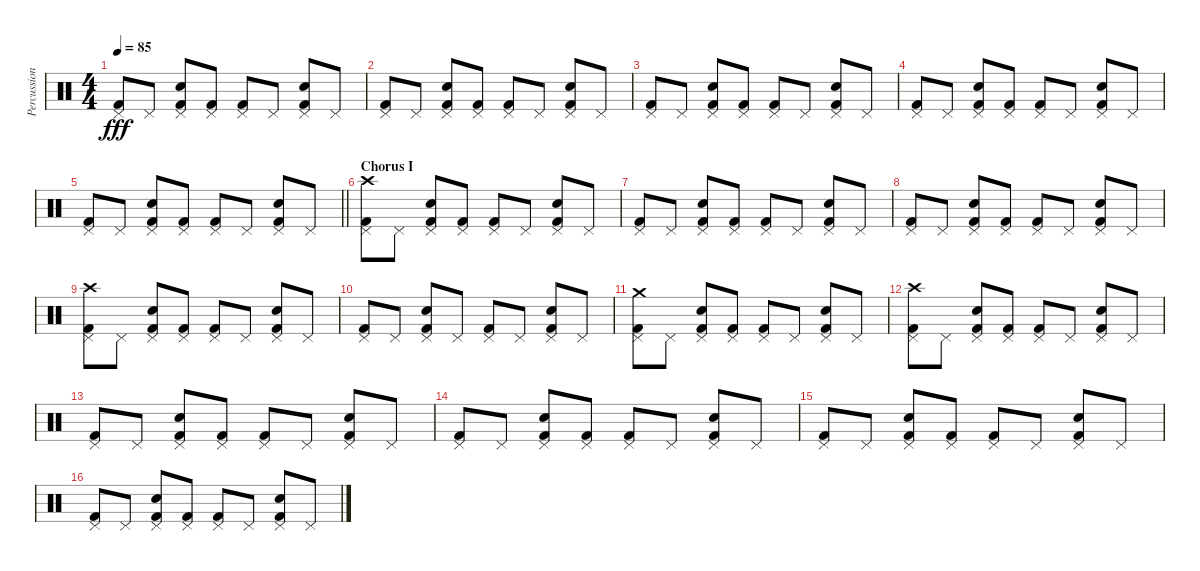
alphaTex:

\track ("Percussion" "Percussion") {instrument percussion}
\staff {score}
\articulation defaults
\ts (4 4)
\tempo 85
\clef neutral
\ks c
("Pedal Hi-Hat (hit)" "Kick (hit) 2").8{dy fff} "Pedal Hi-Hat (hit)".8 ("Pedal Hi-Hat (hit)" "Snare (hit) 2" "Kick (hit) 2").8 ("Pedal Hi-Hat (hit)" "Kick (hit) 2").8 ("Pedal Hi-Hat (hit)" "Kick (hit) 2").8 "Pedal Hi-Hat (hit)".8 ("Pedal Hi-Hat (hit)" "Snare (hit) 2" "Kick (hit) 2").8 "Pedal Hi-Hat (hit)".8 |
("Pedal Hi-Hat (hit)" "Kick (hit) 2").8 "Pedal Hi-Hat (hit)".8 ("Pedal Hi-Hat (hit)" "Snare (hit) 2" "Kick (hit) 2").8 ("Pedal Hi-Hat (hit)" "Kick (hit) 2").8 ("Pedal Hi-Hat (hit)" "Kick (hit) 2").8 "Pedal Hi-Hat (hit)".8 ("Pedal Hi-Hat (hit)" "Snare (hit) 2" "Kick (hit) 2").8 "Pedal Hi-Hat (hit)".8 |
("Pedal Hi-Hat (hit)" "Kick (hit) 2").8 "Pedal Hi-Hat (hit)".8 ("Pedal Hi-Hat (hit)" "Snare (hit) 2" "Kick (hit) 2").8 ("Pedal Hi-Hat (hit)" "Kick (hit) 2").8 ("Pedal Hi-Hat (hit)" "Kick (hit) 2").8 "Pedal Hi-Hat (hit)".8 ("Pedal Hi-Hat (hit)" "Snare (hit) 2" "Kick (hit) 2").8 "Pedal Hi-Hat (hit)".8 |
("Pedal Hi-Hat (hit)" "Kick (hit) 2").8 "Pedal Hi-Hat (hit)".8 ("Pedal Hi-Hat (hit)" "Snare (hit) 2" "Kick (hit) 2").8 ("Pedal Hi-Hat (hit)" "Kick (hit) 2").8 ("Pedal Hi-Hat (hit)" "Kick (hit) 2").8 "Pedal Hi-Hat (hit)".8 ("Pedal Hi-Hat (hit)" "Snare (hit) 2" "Kick (hit) 2").8 "Pedal Hi-Hat (hit)".8 |
\barLineRight lightlight
("Pedal Hi-Hat (hit)" "Kick (hit) 2").8 "Pedal Hi-Hat (hit)".8 ("Pedal Hi-Hat (hit)" "Snare (hit) 2" "Kick (hit) 2").8 ("Pedal Hi-Hat (hit)" "Kick (hit) 2").8 ("Pedal Hi-Hat (hit)" "Kick (hit) 2").8 "Pedal Hi-Hat (hit)".8 ("Pedal Hi-Hat (hit)" "Snare (hit) 2" "Kick (hit) 2").8 "Pedal Hi-Hat (hit)".8 |
\section ("" "Chorus I")
("Crash high (hit)" "Pedal Hi-Hat (hit)" "Kick (hit) 2").8 "Pedal Hi-Hat (hit)".8 ("Pedal Hi-Hat (hit)" "Snare (hit) 2" "Kick (hit) 2").8 ("Pedal Hi-Hat (hit)" "Kick (hit) 2").8 ("Pedal Hi-Hat (hit)" "Kick (hit) 2").8 "Pedal Hi-Hat (hit)".8 ("Pedal Hi-Hat (hit)" "Snare (hit) 2" "Kick (hit) 2").8 "Pedal Hi-Hat (hit)".8 |
("Pedal Hi-Hat (hit)" "Kick (hit) 2").8 "Pedal Hi-Hat (hit)".8 ("Pedal Hi-Hat (hit)" "Snare (hit) 2" "Kick (hit) 2").8 ("Pedal Hi-Hat (hit)" "Kick (hit) 2").8 ("Pedal Hi-Hat (hit)" "Kick (hit) 2").8 "Pedal Hi-Hat (hit)".8 ("Pedal Hi-Hat (hit)" "Snare (hit) 2" "Kick (hit) 2").8 "Pedal Hi-Hat (hit)".8 |
("Pedal Hi-Hat (hit)" "Kick (hit) 2").8 "Pedal Hi-Hat (hit)".8 ("Pedal Hi-Hat (hit)" "Snare (hit) 2" "Kick (hit) 2").8 ("Pedal Hi-Hat (hit)" "Kick (hit) 2").8 ("Pedal Hi-Hat (hit)" "Kick (hit) 2").8 "Pedal Hi-Hat (hit)".8 ("Pedal Hi-Hat (hit)" "Snare (hit) 2" "Kick (hit) 2").8 "Pedal Hi-Hat (hit)".8 |
("Crash high (hit)" "Pedal Hi-Hat (hit)" "Kick (hit) 2").8 "Pedal Hi-Hat (hit)".8 ("Pedal Hi-Hat (hit)" "Snare (hit) 2" "Kick (hit) 2").8 ("Pedal Hi-Hat (hit)" "Kick (hit) 2").8 ("Pedal Hi-Hat (hit)" "Kick (hit) 2").8 "Pedal Hi-Hat (hit)".8 ("Pedal Hi-Hat (hit)" "Snare (hit) 2" "Kick (hit) 2").8 "Pedal Hi-Hat (hit)".8 |
("Pedal Hi-Hat (hit)" "Kick (hit) 2").8 "Pedal Hi-Hat (hit)".8 ("Pedal Hi-Hat (hit)" "Snare (hit) 2" "Kick (hit) 2").8 "Pedal Hi-Hat (hit)".8 ("Pedal Hi-Hat (hit)" "Kick (hit) 2").8 "Pedal Hi-Hat (hit)".8 ("Pedal Hi-Hat (hit)" "Snare (hit) 2" "Kick (hit) 2").8 "Pedal Hi-Hat (hit)".8 |
("Crash medium (hit)" "Pedal Hi-Hat (hit)" "Kick (hit) 2").8 "Pedal Hi-Hat (hit)".8 ("Pedal Hi-Hat (hit)" "Snare (hit) 2" "Kick (hit) 2").8 ("Pedal Hi-Hat (hit)" "Kick (hit) 2").8 ("Pedal Hi-Hat (hit)" "Kick (hit) 2").8 "Pedal Hi-Hat (hit)".8 ("Pedal Hi-Hat (hit)" "Snare (hit) 2" "Kick (hit) 2").8 "Pedal Hi-Hat (hit)".8 |
("Crash high (hit)" "Pedal Hi-Hat (hit)" "Kick (hit) 2").8 "Pedal Hi-Hat (hit)".8 ("Pedal Hi-Hat (hit)" "Snare (hit) 2" "Kick (hit) 2").8 ("Pedal Hi-Hat (hit)" "Kick (hit) 2").8 ("Pedal Hi-Hat (hit)" "Kick (hit) 2").8 "Pedal Hi-Hat (hit)".8 ("Pedal Hi-Hat (hit)" "Snare (hit) 2" "Kick (hit) 2").8 "Pedal Hi-Hat (hit)".8 |
("Pedal Hi-Hat (hit)" "Kick (hit) 2").8 "Pedal Hi-Hat (hit)".8 ("Pedal Hi-Hat (hit)" "Snare (hit) 2" "Kick (hit) 2").8 ("Pedal Hi-Hat (hit)" "Kick (hit) 2").8 ("Pedal Hi-Hat (hit)" "Kick (hit) 2").8 "Pedal Hi-Hat (hit)".8 ("Pedal Hi-Hat (hit)" "Snare (hit) 2" "Kick (hit) 2").8 "Pedal Hi-Hat (hit)".8 |
("Pedal Hi-Hat (hit)" "Kick (hit) 2").8 "Pedal Hi-Hat (hit)".8 ("Pedal Hi-Hat (hit)" "Snare (hit) 2" "Kick (hit) 2").8 ("Pedal Hi-Hat (hit)" "Kick (hit) 2").8 ("Pedal Hi-Hat (hit)" "Kick (hit) 2").8 "Pedal Hi-Hat (hit)".8 ("Pedal Hi-Hat (hit)" "Snare (hit) 2" "Kick (hit) 2").8 "Pedal Hi-Hat (hit)".8 |
("Pedal Hi-Hat (hit)" "Kick (hit) 2").8 "Pedal Hi-Hat (hit)".8 ("Pedal Hi-Hat (hit)" "Snare (hit) 2" "Kick (hit) 2").8 ("Pedal Hi-Hat (hit)" "Kick (hit) 2").8 ("Pedal Hi-Hat (hit)" "Kick (hit) 2").8 "Pedal Hi-Hat (hit)".8 ("Pedal Hi-Hat (hit)" "Snare (hit) 2" "Kick (hit) 2").8 "Pedal Hi-Hat (hit)".8 |
("Pedal Hi-Hat (hit)" "Kick (hit) 2").8 "Pedal Hi-Hat (hit)".8 ("Pedal Hi-Hat (hit)" "Snare (hit) 2" "Kick (hit) 2").8 ("Pedal Hi-Hat (hit)" "Kick (hit) 2").8 ("Pedal Hi-Hat (hit)" "Kick (hit) 2").8 "Pedal Hi-Hat (hit)".8 ("Pedal Hi-Hat (hit)" "Snare (hit) 2" "Kick (hit) 2").8 "Pedal Hi-Hat (hit)".8
